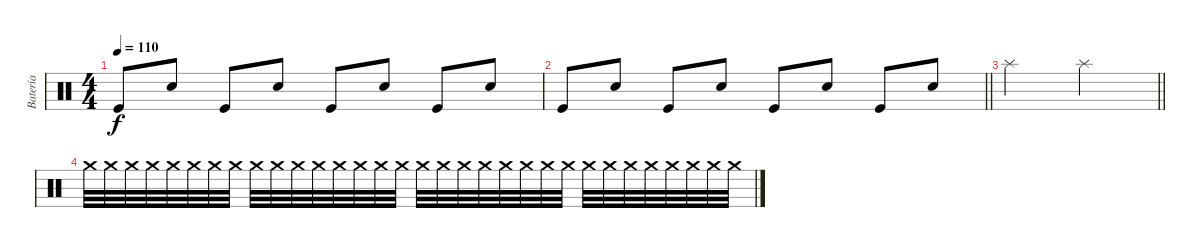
\track ("Batería" "Batería") {instrument percussion}
\staff {score}
\articulation defaults
\ts (4 4)
\tempo 110
\clef neutral
\ks c "Kick (hit)".8{dy f} "Electric Snare (hit)".8 "Kick (hit)".8 "Electric Snare (hit)".8 "Kick (hit)".8 "Electric Snare (hit)".8 "Kick (hit)".8 "Electric Snare (hit)".8
|
\barLineRight lightlight "Kick (hit)".8 "Electric Snare (hit)".8 "Kick (hit)".8 "Electric Snare (hit)".8 "Kick (hit)".8 "Electric Snare (hit)".8 "Kick (hit)".8 "Electric Snare (hit)".8
|
\barLineRight lightlight "Splash (hit)".2 "Splash (hit)".2
|
"Crash medium (hit)".32 "Crash medium (hit)".32 "Crash medium (hit)".32 "Crash medium (hit)".32 "Crash medium (hit)".32 "Crash medium (hit)".32 "Crash medium (hit)".32 "Crash medium (hit)".32 "Crash medium (hit)".32 "Crash medium (hit)".32 "Crash medium (hit)".32 "Crash medium (hit)".32 "Crash medium (hit)".32 "Crash medium (hit)".32 "Crash medium (hit)".32 "Crash medium (hit)".32 "Crash medium (hit)".32 "Crash medium (hit)".32 "Crash medium (hit)".32 "Crash medium (hit)".32 "Crash medium (hit)".32 "Crash medium (hit)".32 "Crash medium (hit)".32 "Crash medium (hit)".32 "Crash medium (hit)".32 "Crash medium (hit)".32 "Crash medium (hit)".32 "Crash medium (hit)".32 "Crash medium (hit)".32 "Crash medium (hit)".32 "Crash medium (hit)".32 "Crash medium (hit)".32
